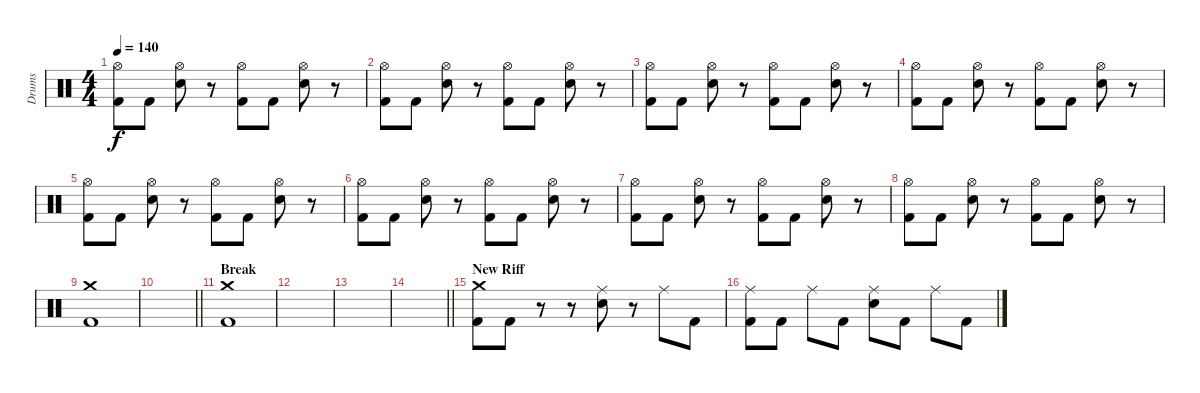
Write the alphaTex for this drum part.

\track ("Drums" "Drums") {instrument percussion}
\staff {score}
\articulation defaults
\ts (4 4)
\tempo 140
\clef neutral
\ks c
("Hi-Hat (open)" "Kick (hit) 2").8{dy f} "Kick (hit) 2".8 ("Hi-Hat (open)" "Electric Snare (hit)").8 r.8 ("Hi-Hat (open)" "Kick (hit) 2").8 "Kick (hit) 2".8 ("Hi-Hat (open)" "Electric Snare (hit)").8 r.8 |
("Hi-Hat (open)" "Kick (hit) 2").8 "Kick (hit) 2".8 ("Hi-Hat (open)" "Electric Snare (hit)").8 r.8 ("Hi-Hat (open)" "Kick (hit) 2").8 "Kick (hit) 2".8 ("Hi-Hat (open)" "Electric Snare (hit)").8 r.8 |
("Hi-Hat (open)" "Kick (hit) 2").8 "Kick (hit) 2".8 ("Hi-Hat (open)" "Electric Snare (hit)").8 r.8 ("Hi-Hat (open)" "Kick (hit) 2").8 "Kick (hit) 2".8 ("Hi-Hat (open)" "Electric Snare (hit)").8 r.8 |
("Hi-Hat (open)" "Kick (hit) 2").8 "Kick (hit) 2".8 ("Hi-Hat (open)" "Electric Snare (hit)").8 r.8 ("Hi-Hat (open)" "Kick (hit) 2").8 "Kick (hit) 2".8 ("Hi-Hat (open)" "Electric Snare (hit)").8 r.8 |
("Hi-Hat (open)" "Kick (hit) 2").8 "Kick (hit) 2".8 ("Hi-Hat (open)" "Electric Snare (hit)").8 r.8 ("Hi-Hat (open)" "Kick (hit) 2").8 "Kick (hit) 2".8 ("Hi-Hat (open)" "Electric Snare (hit)").8 r.8 |
("Hi-Hat (open)" "Kick (hit) 2").8 "Kick (hit) 2".8 ("Hi-Hat (open)" "Electric Snare (hit)").8 r.8 ("Hi-Hat (open)" "Kick (hit) 2").8 "Kick (hit) 2".8 ("Hi-Hat (open)" "Electric Snare (hit)").8 r.8 |
("Hi-Hat (open)" "Kick (hit) 2").8 "Kick (hit) 2".8 ("Hi-Hat (open)" "Electric Snare (hit)").8 r.8 ("Hi-Hat (open)" "Kick (hit) 2").8 "Kick (hit) 2".8 ("Hi-Hat (open)" "Electric Snare (hit)").8 r.8 |
("Hi-Hat (open)" "Kick (hit) 2").8 "Kick (hit) 2".8 ("Hi-Hat (open)" "Electric Snare (hit)").8 r.8 ("Hi-Hat (open)" "Kick (hit) 2").8 "Kick (hit) 2".8 ("Hi-Hat (open)" "Electric Snare (hit)").8 r.8 |
("Crash medium (hit)" "Kick (hit) 2").1 |
\barLineRight lightlight
|
\section ("" "Break")
("Crash medium (hit)" "Kick (hit) 2").1 |
|
|
\barLineRight lightlight
|
\section ("" "New Riff")
("Crash medium (hit)" "Kick (hit) 2").8 "Kick (hit) 2".8 r.8 r.8 ("Ride (middle)" "Electric Snare (hit)").8 r.8 "Ride (middle)".8 "Kick (hit) 2".8 |
("Ride (middle)" "Kick (hit) 2").8 "Kick (hit) 2".8 "Ride (middle)".8 "Kick (hit) 2".8 ("Ride (middle)" "Electric Snare (hit)").8 "Kick (hit) 2".8 "Ride (middle)".8 "Kick (hit) 2".8
